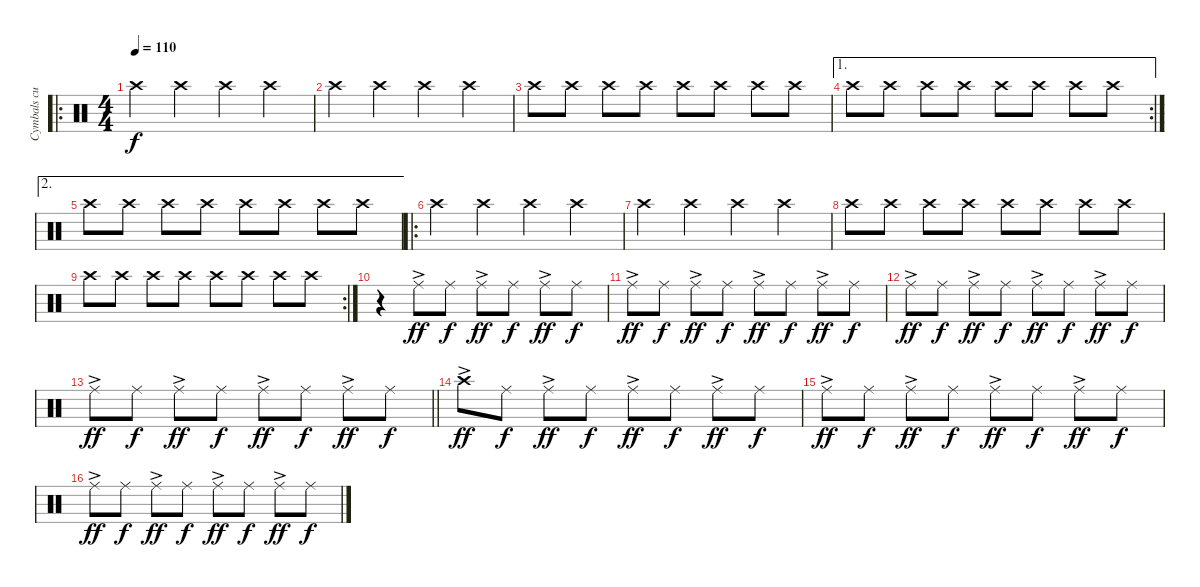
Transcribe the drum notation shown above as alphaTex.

\track ("Cymbals cuz I'm lazy" "Cymbals cu") {instrument percussion}
\staff {score}
\articulation defaults
\ro
\ts (4 4)
\tempo 110
\clef neutral
\ks c "Crash high (hit)".4{dy f} "Crash high (hit)".4 "Crash high (hit)".4 "Crash high (hit)".4
|
"Crash high (hit)".4 "Crash high (hit)".4 "Crash high (hit)".4 "Crash high (hit)".4 |
"Crash high (hit)".8 "Crash high (hit)".8 "Crash high (hit)".8 "Crash high (hit)".8 "Crash high (hit)".8 "Crash high (hit)".8 "Crash high (hit)".8 "Crash high (hit)".8 |
\ae 1
\rc 2 "Crash high (hit)".8 "Crash high (hit)".8 "Crash high (hit)".8 "Crash high (hit)".8 "Crash high (hit)".8 "Crash high (hit)".8 "Crash high (hit)".8 "Crash high (hit)".8
|
\ae 2 "Crash high (hit)".8 "Crash high (hit)".8 "Crash high (hit)".8 "Crash high (hit)".8 "Crash high (hit)".8 "Crash high (hit)".8 "Crash high (hit)".8 "Crash high (hit)".8
|
\ro "Crash high (hit)".4 "Crash high (hit)".4 "Crash high (hit)".4 "Crash high (hit)".4
|
"Crash high (hit)".4 "Crash high (hit)".4 "Crash high (hit)".4 "Crash high (hit)".4 |
"Crash high (hit)".8 "Crash high (hit)".8 "Crash high (hit)".8 "Crash high (hit)".8 "Crash high (hit)".8 "Crash high (hit)".8 "Crash high (hit)".8 "Crash high (hit)".8 |
\rc 2 "Crash high (hit)".8 "Crash high (hit)".8 "Crash high (hit)".8 "Crash high (hit)".8 "Crash high (hit)".8 "Crash high (hit)".8 "Crash high (hit)".8 "Crash high (hit)".8
|
r.4{volume 9} "Ride (middle)"{ac}.8{dy ff} "Ride (middle)".8{dy f} "Ride (middle)"{ac}.8{dy ff} "Ride (middle)".8{dy f} "Ride (middle)"{ac}.8{dy ff} "Ride (middle)".8{dy f} |
"Ride (middle)"{ac}.8{dy ff} "Ride (middle)".8{dy f} "Ride (middle)"{ac}.8{dy ff} "Ride (middle)".8{dy f} "Ride (middle)"{ac}.8{dy ff} "Ride (middle)".8{dy f} "Ride (middle)"{ac}.8{dy ff} "Ride (middle)".8{dy f} |
"Ride (middle)"{ac}.8{dy ff} "Ride (middle)".8{dy f} "Ride (middle)"{ac}.8{dy ff} "Ride (middle)".8{dy f} "Ride (middle)"{ac}.8{dy ff} "Ride (middle)".8{dy f} "Ride (middle)"{ac}.8{dy ff} "Ride (middle)".8{dy f} |
\barLineRight lightlight "Ride (middle)"{ac}.8{dy ff} "Ride (middle)".8{dy f} "Ride (middle)"{ac}.8{dy ff} "Ride (middle)".8{dy f} "Ride (middle)"{ac}.8{dy ff} "Ride (middle)".8{dy f} "Ride (middle)"{ac}.8{dy ff} "Ride (middle)".8{dy f}
|
"Crash high (hit)"{ac}.8{dy ff} "Ride (middle)".8{dy f} "Ride (middle)"{ac}.8{dy ff} "Ride (middle)".8{dy f} "Ride (middle)"{ac}.8{dy ff} "Ride (middle)".8{dy f} "Ride (middle)"{ac}.8{dy ff} "Ride (middle)".8{dy f} |
"Ride (middle)"{ac}.8{dy ff} "Ride (middle)".8{dy f} "Ride (middle)"{ac}.8{dy ff} "Ride (middle)".8{dy f} "Ride (middle)"{ac}.8{dy ff} "Ride (middle)".8{dy f} "Ride (middle)"{ac}.8{dy ff} "Ride (middle)".8{dy f} |
"Ride (middle)"{ac}.8{dy ff} "Ride (middle)".8{dy f} "Ride (middle)"{ac}.8{dy ff} "Ride (middle)".8{dy f} "Ride (middle)"{ac}.8{dy ff} "Ride (middle)".8{dy f} "Ride (middle)"{ac}.8{dy ff} "Ride (middle)".8{dy f}
